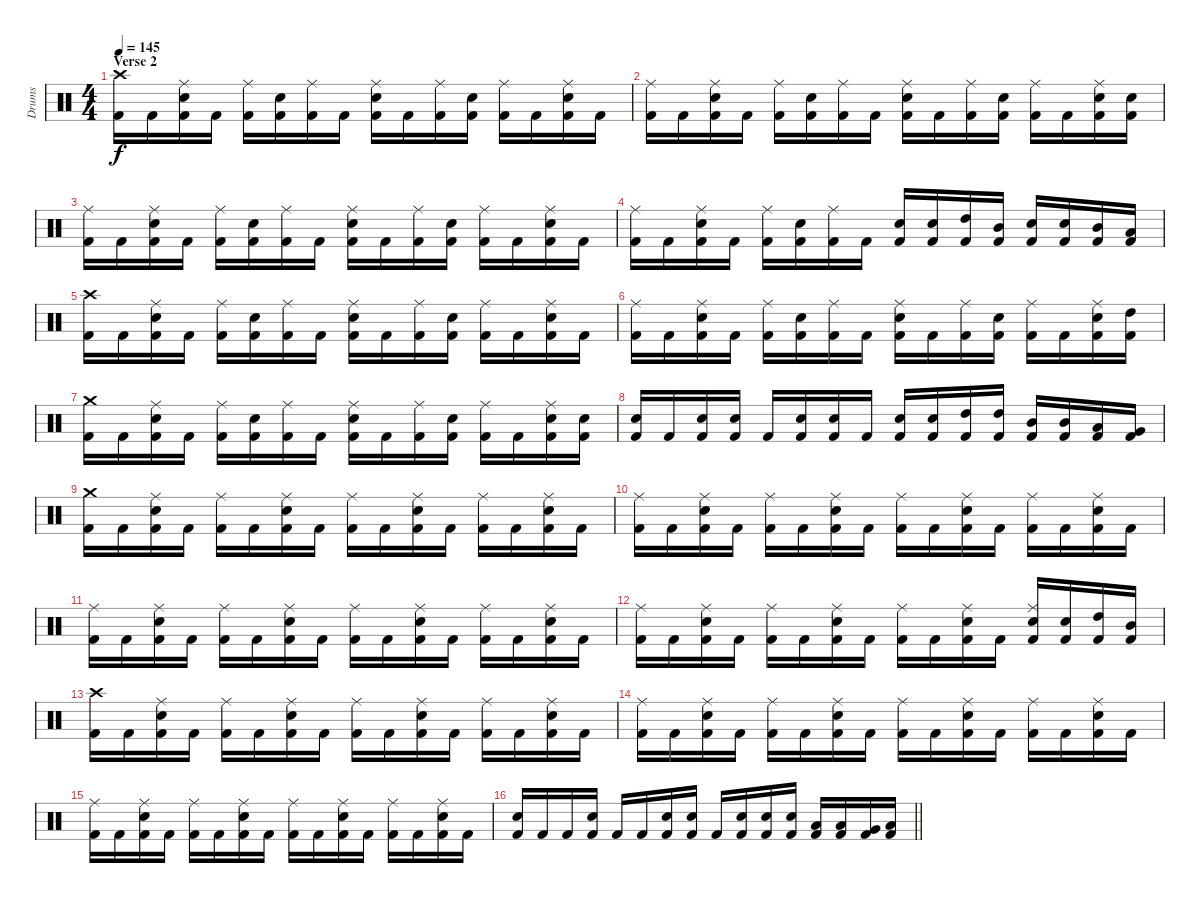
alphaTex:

\track ("Drums" "Drums") {instrument percussion}
\staff {score}
\articulation defaults
\ts (4 4)
\section ("" "Verse 2")
\tempo 145
\clef neutral
\ks c
("Crash high (hit)" "Kick (hit) 2").16{dy f} "Kick (hit) 2".16 ("Ride (middle)" "Electric Snare (hit)" "Kick (hit) 2").16 "Kick (hit) 2".16 ("Ride (middle)" "Kick (hit) 2").16 ("Electric Snare (hit)" "Kick (hit) 2").16 ("Ride (middle)" "Kick (hit) 2").16 "Kick (hit) 2".16 ("Ride (middle)" "Electric Snare (hit)" "Kick (hit) 2").16 "Kick (hit) 2".16 ("Ride (middle)" "Kick (hit) 2").16 ("Electric Snare (hit)" "Kick (hit) 2").16 ("Ride (middle)" "Kick (hit) 2").16 "Kick (hit) 2".16 ("Ride (middle)" "Electric Snare (hit)" "Kick (hit) 2").16 "Kick (hit) 2".16 |
("Ride (middle)" "Kick (hit) 2").16 "Kick (hit) 2".16 ("Ride (middle)" "Electric Snare (hit)" "Kick (hit) 2").16 "Kick (hit) 2".16 ("Ride (middle)" "Kick (hit) 2").16 ("Electric Snare (hit)" "Kick (hit) 2").16 ("Ride (middle)" "Kick (hit) 2").16 "Kick (hit) 2".16 ("Ride (middle)" "Electric Snare (hit)" "Kick (hit) 2").16 "Kick (hit) 2".16 ("Ride (middle)" "Kick (hit) 2").16 ("Electric Snare (hit)" "Kick (hit) 2").16 ("Ride (middle)" "Kick (hit) 2").16 "Kick (hit) 2".16 ("Ride (middle)" "Electric Snare (hit)" "Kick (hit) 2").16 ("Electric Snare (hit)" "Kick (hit) 2").16 |
("Ride (middle)" "Kick (hit) 2").16 "Kick (hit) 2".16 ("Ride (middle)" "Electric Snare (hit)" "Kick (hit) 2").16 "Kick (hit) 2".16 ("Ride (middle)" "Kick (hit) 2").16 ("Electric Snare (hit)" "Kick (hit) 2").16 ("Ride (middle)" "Kick (hit) 2").16 "Kick (hit) 2".16 ("Ride (middle)" "Electric Snare (hit)" "Kick (hit) 2").16 "Kick (hit) 2".16 ("Ride (middle)" "Kick (hit) 2").16 ("Electric Snare (hit)" "Kick (hit) 2").16 ("Ride (middle)" "Kick (hit) 2").16 "Kick (hit) 2".16 ("Ride (middle)" "Electric Snare (hit)" "Kick (hit) 2").16 "Kick (hit) 2".16 |
("Ride (middle)" "Kick (hit) 2").16 "Kick (hit) 2".16 ("Ride (middle)" "Electric Snare (hit)" "Kick (hit) 2").16 "Kick (hit) 2".16 ("Ride (middle)" "Kick (hit) 2").16 ("Electric Snare (hit)" "Kick (hit) 2").16 ("Ride (middle)" "Kick (hit) 2").16 "Kick (hit) 2".16 ("Electric Snare (hit)" "Kick (hit) 2").16 ("Electric Snare (hit)" "Kick (hit) 2").16 ("High Tom (hit)" "Kick (hit) 2").16 ("Mid Tom (hit)" "Kick (hit) 2").16 ("Electric Snare (hit)" "Kick (hit) 2").16 ("Electric Snare (hit)" "Kick (hit) 2").16 ("Mid Tom (hit)" "Kick (hit) 2").16 ("Low Tom (hit)" "Kick (hit) 2").16 |
("Crash high (hit)" "Kick (hit) 2").16 "Kick (hit) 2".16 ("Ride (middle)" "Electric Snare (hit)" "Kick (hit) 2").16 "Kick (hit) 2".16 ("Ride (middle)" "Kick (hit) 2").16 ("Electric Snare (hit)" "Kick (hit) 2").16 ("Ride (middle)" "Kick (hit) 2").16 "Kick (hit) 2".16 ("Ride (middle)" "Electric Snare (hit)" "Kick (hit) 2").16 "Kick (hit) 2".16 ("Ride (middle)" "Kick (hit) 2").16 ("Electric Snare (hit)" "Kick (hit) 2").16 ("Ride (middle)" "Kick (hit) 2").16 "Kick (hit) 2".16 ("Ride (middle)" "Electric Snare (hit)" "Kick (hit) 2").16 "Kick (hit) 2".16 |
("Ride (middle)" "Kick (hit) 2").16 "Kick (hit) 2".16 ("Ride (middle)" "Electric Snare (hit)" "Kick (hit) 2").16 "Kick (hit) 2".16 ("Ride (middle)" "Kick (hit) 2").16 ("Electric Snare (hit)" "Kick (hit) 2").16 ("Ride (middle)" "Kick (hit) 2").16 "Kick (hit) 2".16 ("Ride (middle)" "Electric Snare (hit)" "Kick (hit) 2").16 "Kick (hit) 2".16 ("Ride (middle)" "Kick (hit) 2").16 ("Electric Snare (hit)" "Kick (hit) 2").16 ("Ride (middle)" "Kick (hit) 2").16 "Kick (hit) 2".16 ("Ride (middle)" "Electric Snare (hit)" "Kick (hit) 2").16 ("High Tom (hit)" "Kick (hit) 2").16 |
("Crash medium (hit)" "Kick (hit) 2").16 "Kick (hit) 2".16 ("Ride (middle)" "Electric Snare (hit)" "Kick (hit) 2").16 "Kick (hit) 2".16 ("Ride (middle)" "Kick (hit) 2").16 ("Electric Snare (hit)" "Kick (hit) 2").16 ("Ride (middle)" "Kick (hit) 2").16 "Kick (hit) 2".16 ("Ride (middle)" "Electric Snare (hit)" "Kick (hit) 2").16 "Kick (hit) 2".16 ("Ride (middle)" "Kick (hit) 2").16 ("Electric Snare (hit)" "Kick (hit) 2").16 ("Ride (middle)" "Kick (hit) 2").16 "Kick (hit) 2".16 ("Ride (middle)" "Electric Snare (hit)" "Kick (hit) 2").16 ("Electric Snare (hit)" "Kick (hit) 2").16 |
("Electric Snare (hit)" "Kick (hit) 2").16 "Kick (hit) 2".16 ("Electric Snare (hit)" "Kick (hit) 2").16 ("Electric Snare (hit)" "Kick (hit) 2").16 "Kick (hit) 2".16 ("Electric Snare (hit)" "Kick (hit) 2").16 ("Electric Snare (hit)" "Kick (hit) 2").16 "Kick (hit) 2".16 ("Electric Snare (hit)" "Kick (hit) 2").16 ("Electric Snare (hit)" "Kick (hit) 2").16 ("High Tom (hit)" "Kick (hit) 2").16 ("High Tom (hit)" "Kick (hit) 2").16 ("Mid Tom (hit)" "Kick (hit) 2").16 ("Mid Tom (hit)" "Kick (hit) 2").16 ("Low Tom (hit)" "Kick (hit) 2").16 ("Very Low Tom (hit)" "Kick (hit) 2").16 |
("Crash medium (hit)" "Kick (hit) 2").16 "Kick (hit) 2".16 ("Ride (middle)" "Electric Snare (hit)" "Kick (hit) 2").16 "Kick (hit) 2".16 ("Ride (middle)" "Kick (hit) 2").16 "Kick (hit) 2".16 ("Ride (middle)" "Electric Snare (hit)" "Kick (hit) 2").16 "Kick (hit) 2".16 ("Ride (middle)" "Kick (hit) 2").16 "Kick (hit) 2".16 ("Ride (middle)" "Electric Snare (hit)" "Kick (hit) 2").16 "Kick (hit) 2".16 ("Ride (middle)" "Kick (hit) 2").16 "Kick (hit) 2".16 ("Ride (middle)" "Electric Snare (hit)" "Kick (hit) 2").16 "Kick (hit) 2".16 |
("Ride (middle)" "Kick (hit) 2").16 "Kick (hit) 2".16 ("Ride (middle)" "Electric Snare (hit)" "Kick (hit) 2").16 "Kick (hit) 2".16 ("Ride (middle)" "Kick (hit) 2").16 "Kick (hit) 2".16 ("Ride (middle)" "Electric Snare (hit)" "Kick (hit) 2").16 "Kick (hit) 2".16 ("Ride (middle)" "Kick (hit) 2").16 "Kick (hit) 2".16 ("Ride (middle)" "Electric Snare (hit)" "Kick (hit) 2").16 "Kick (hit) 2".16 ("Ride (middle)" "Kick (hit) 2").16 "Kick (hit) 2".16 ("Ride (middle)" "Electric Snare (hit)" "Kick (hit) 2").16 "Kick (hit) 2".16 |
("Ride (middle)" "Kick (hit) 2").16 "Kick (hit) 2".16 ("Ride (middle)" "Electric Snare (hit)" "Kick (hit) 2").16 "Kick (hit) 2".16 ("Ride (middle)" "Kick (hit) 2").16 "Kick (hit) 2".16 ("Ride (middle)" "Electric Snare (hit)" "Kick (hit) 2").16 "Kick (hit) 2".16 ("Ride (middle)" "Kick (hit) 2").16 "Kick (hit) 2".16 ("Ride (middle)" "Electric Snare (hit)" "Kick (hit) 2").16 "Kick (hit) 2".16 ("Ride (middle)" "Kick (hit) 2").16 "Kick (hit) 2".16 ("Ride (middle)" "Electric Snare (hit)" "Kick (hit) 2").16 "Kick (hit) 2".16 |
("Ride (middle)" "Kick (hit) 2").16 "Kick (hit) 2".16 ("Ride (middle)" "Electric Snare (hit)" "Kick (hit) 2").16 "Kick (hit) 2".16 ("Ride (middle)" "Kick (hit) 2").16 "Kick (hit) 2".16 ("Ride (middle)" "Electric Snare (hit)" "Kick (hit) 2").16 "Kick (hit) 2".16 ("Ride (middle)" "Kick (hit) 2").16 "Kick (hit) 2".16 ("Ride (middle)" "Electric Snare (hit)" "Kick (hit) 2").16 "Kick (hit) 2".16 ("Ride (middle)" "Electric Snare (hit)" "Kick (hit) 2").16 ("Electric Snare (hit)" "Kick (hit) 2").16 ("High Tom (hit)" "Kick (hit) 2").16 ("Mid Tom (hit)" "Kick (hit) 2").16 |
("Crash high (hit)" "Kick (hit) 2").16 "Kick (hit) 2".16 ("Ride (middle)" "Electric Snare (hit)" "Kick (hit) 2").16 "Kick (hit) 2".16 ("Ride (middle)" "Kick (hit) 2").16 "Kick (hit) 2".16 ("Ride (middle)" "Electric Snare (hit)" "Kick (hit) 2").16 "Kick (hit) 2".16 ("Ride (middle)" "Kick (hit) 2").16 "Kick (hit) 2".16 ("Ride (middle)" "Electric Snare (hit)" "Kick (hit) 2").16 "Kick (hit) 2".16 ("Ride (middle)" "Kick (hit) 2").16 "Kick (hit) 2".16 ("Ride (middle)" "Electric Snare (hit)" "Kick (hit) 2").16 "Kick (hit) 2".16 |
("Ride (middle)" "Kick (hit) 2").16 "Kick (hit) 2".16 ("Ride (middle)" "Electric Snare (hit)" "Kick (hit) 2").16 "Kick (hit) 2".16 ("Ride (middle)" "Kick (hit) 2").16 "Kick (hit) 2".16 ("Ride (middle)" "Electric Snare (hit)" "Kick (hit) 2").16 "Kick (hit) 2".16 ("Ride (middle)" "Kick (hit) 2").16 "Kick (hit) 2".16 ("Ride (middle)" "Electric Snare (hit)" "Kick (hit) 2").16 "Kick (hit) 2".16 ("Ride (middle)" "Kick (hit) 2").16 "Kick (hit) 2".16 ("Ride (middle)" "Electric Snare (hit)" "Kick (hit) 2").16 "Kick (hit) 2".16 |
("Ride (middle)" "Kick (hit) 2").16 "Kick (hit) 2".16 ("Ride (middle)" "Electric Snare (hit)" "Kick (hit) 2").16 "Kick (hit) 2".16 ("Ride (middle)" "Kick (hit) 2").16 "Kick (hit) 2".16 ("Ride (middle)" "Electric Snare (hit)" "Kick (hit) 2").16 "Kick (hit) 2".16 ("Ride (middle)" "Kick (hit) 2").16 "Kick (hit) 2".16 ("Ride (middle)" "Electric Snare (hit)" "Kick (hit) 2").16 "Kick (hit) 2".16 ("Ride (middle)" "Kick (hit) 2").16 "Kick (hit) 2".16 ("Ride (middle)" "Electric Snare (hit)" "Kick (hit) 2").16 "Kick (hit) 2".16 |
\barLineRight lightlight
("Electric Snare (hit)" "Kick (hit) 2").16 "Kick (hit) 2".16 "Kick (hit) 2".16 ("Electric Snare (hit)" "Kick (hit) 2").16 "Kick (hit) 2".16 "Kick (hit) 2".16 ("Electric Snare (hit)" "Kick (hit) 2").16 ("Electric Snare (hit)" "Kick (hit) 2").16 "Kick (hit) 2".16 ("Electric Snare (hit)" "Kick (hit) 2").16 ("Electric Snare (hit)" "Kick (hit) 2").16 ("Electric Snare (hit)" "Kick (hit) 2").16 ("Low Tom (hit)" "Kick (hit) 2").16 ("Low Tom (hit)" "Kick (hit) 2").16 ("Very Low Tom (hit)" "Kick (hit) 2").16 ("Low Floor Tom (hit)" "Kick (hit) 2").16
